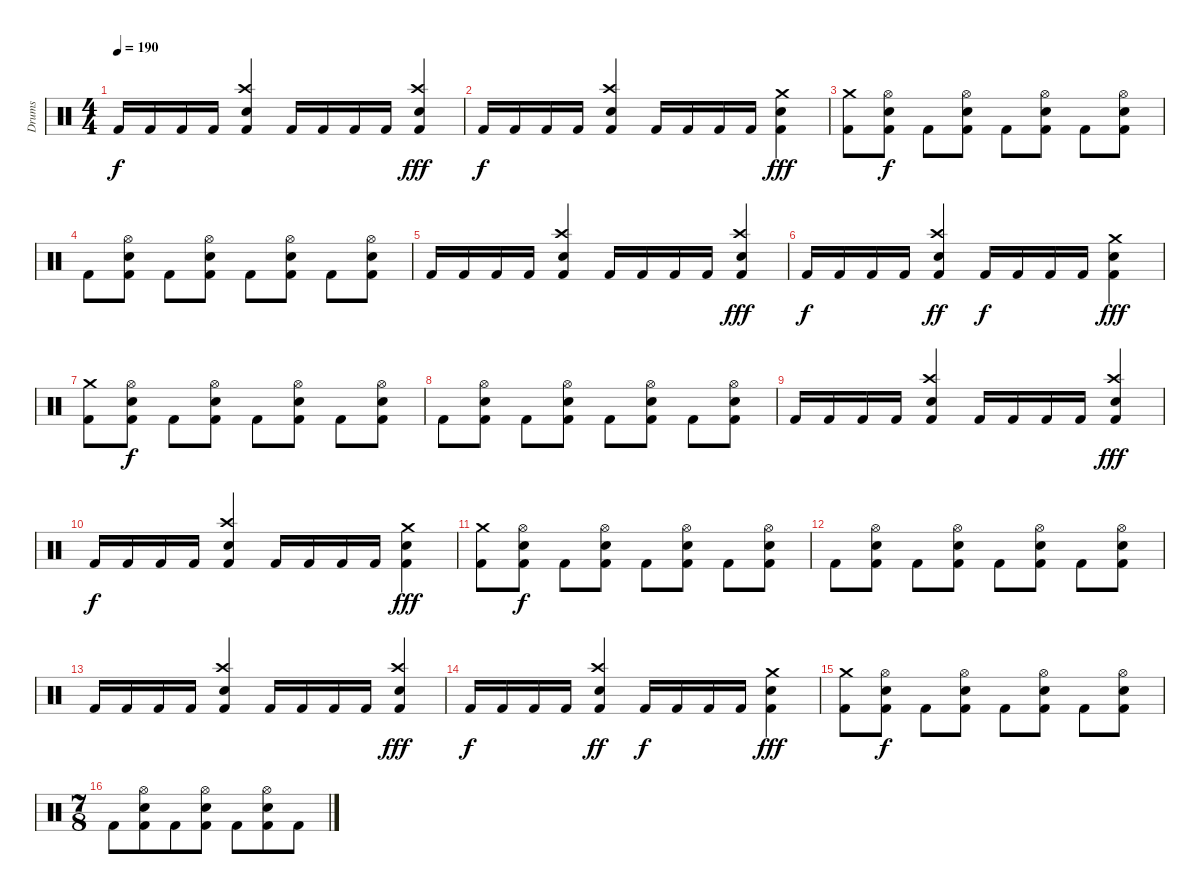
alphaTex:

\track ("Drums" "Drums") {instrument percussion}
\staff {score}
\articulation defaults
\ts (4 4)
\tempo 190
\clef neutral
\ks c "Kick (hit) 2".16{dy f} "Kick (hit) 2".16 "Kick (hit) 2".16 "Kick (hit) 2".16
("Crash high (hit)" "Snare (hit) 2" "Kick (hit) 2").4 "Kick (hit) 2".16 "Kick (hit) 2".16 "Kick (hit) 2".16 "Kick (hit) 2".16 ("Crash high (hit)" "Snare (hit) 2" "Kick (hit) 2").4{dy fff} |
"Kick (hit) 2".16{dy f} "Kick (hit) 2".16 "Kick (hit) 2".16 "Kick (hit) 2".16 ("Crash high (hit)" "Snare (hit) 2" "Kick (hit) 2").4 "Kick (hit) 2".16 "Kick (hit) 2".16 "Kick (hit) 2".16 "Kick (hit) 2".16 ("Crash medium (hit)" "Snare (hit) 2" "Kick (hit) 2").4{dy fff} |
("Crash medium (hit)" "Kick (hit) 2").8 ("Hi-Hat (open)" "Snare (hit) 2" "Kick (hit) 2").8{dy f} "Kick (hit) 2".8 ("Hi-Hat (open)" "Snare (hit) 2" "Kick (hit) 2").8 "Kick (hit) 2".8 ("Hi-Hat (open)" "Snare (hit) 2" "Kick (hit) 2").8 "Kick (hit) 2".8 ("Hi-Hat (open)" "Snare (hit) 2" "Kick (hit) 2").8 |
"Kick (hit) 2".8 ("Hi-Hat (open)" "Snare (hit) 2" "Kick (hit) 2").8 "Kick (hit) 2".8 ("Hi-Hat (open)" "Snare (hit) 2" "Kick (hit) 2").8 "Kick (hit) 2".8 ("Hi-Hat (open)" "Snare (hit) 2" "Kick (hit) 2").8 "Kick (hit) 2".8 ("Hi-Hat (open)" "Snare (hit) 2" "Kick (hit) 2").8 |
"Kick (hit) 2".16 "Kick (hit) 2".16 "Kick (hit) 2".16 "Kick (hit) 2".16 ("Crash high (hit)" "Snare (hit) 2" "Kick (hit) 2").4 "Kick (hit) 2".16 "Kick (hit) 2".16 "Kick (hit) 2".16 "Kick (hit) 2".16 ("Crash high (hit)" "Snare (hit) 2" "Kick (hit) 2").4{dy fff} |
"Kick (hit) 2".16{dy f} "Kick (hit) 2".16 "Kick (hit) 2".16 "Kick (hit) 2".16 ("Crash high (hit)" "Snare (hit) 2" "Kick (hit) 2").4{dy ff} "Kick (hit) 2".16{dy f} "Kick (hit) 2".16 "Kick (hit) 2".16 "Kick (hit) 2".16 ("Crash medium (hit)" "Snare (hit) 2" "Kick (hit) 2").4{dy fff} |
("Crash medium (hit)" "Kick (hit) 2").8 ("Hi-Hat (open)" "Snare (hit) 2" "Kick (hit) 2").8{dy f} "Kick (hit) 2".8 ("Hi-Hat (open)" "Snare (hit) 2" "Kick (hit) 2").8 "Kick (hit) 2".8 ("Hi-Hat (open)" "Snare (hit) 2" "Kick (hit) 2").8 "Kick (hit) 2".8 ("Hi-Hat (open)" "Snare (hit) 2" "Kick (hit) 2").8 |
"Kick (hit) 2".8 ("Hi-Hat (open)" "Snare (hit) 2" "Kick (hit) 2").8 "Kick (hit) 2".8 ("Hi-Hat (open)" "Snare (hit) 2" "Kick (hit) 2").8 "Kick (hit) 2".8 ("Hi-Hat (open)" "Snare (hit) 2" "Kick (hit) 2").8 "Kick (hit) 2".8 ("Hi-Hat (open)" "Snare (hit) 2" "Kick (hit) 2").8 |
"Kick (hit) 2".16 "Kick (hit) 2".16 "Kick (hit) 2".16 "Kick (hit) 2".16 ("Crash high (hit)" "Snare (hit) 2" "Kick (hit) 2").4 "Kick (hit) 2".16 "Kick (hit) 2".16 "Kick (hit) 2".16 "Kick (hit) 2".16 ("Crash high (hit)" "Snare (hit) 2" "Kick (hit) 2").4{dy fff} |
"Kick (hit) 2".16{dy f} "Kick (hit) 2".16 "Kick (hit) 2".16 "Kick (hit) 2".16 ("Crash high (hit)" "Snare (hit) 2" "Kick (hit) 2").4 "Kick (hit) 2".16 "Kick (hit) 2".16 "Kick (hit) 2".16 "Kick (hit) 2".16 ("Crash medium (hit)" "Snare (hit) 2" "Kick (hit) 2").4{dy fff} |
("Crash medium (hit)" "Kick (hit) 2").8 ("Hi-Hat (open)" "Snare (hit) 2" "Kick (hit) 2").8{dy f} "Kick (hit) 2".8 ("Hi-Hat (open)" "Snare (hit) 2" "Kick (hit) 2").8 "Kick (hit) 2".8 ("Hi-Hat (open)" "Snare (hit) 2" "Kick (hit) 2").8 "Kick (hit) 2".8 ("Hi-Hat (open)" "Snare (hit) 2" "Kick (hit) 2").8 |
"Kick (hit) 2".8 ("Hi-Hat (open)" "Snare (hit) 2" "Kick (hit) 2").8 "Kick (hit) 2".8 ("Hi-Hat (open)" "Snare (hit) 2" "Kick (hit) 2").8 "Kick (hit) 2".8 ("Hi-Hat (open)" "Snare (hit) 2" "Kick (hit) 2").8 "Kick (hit) 2".8 ("Hi-Hat (open)" "Snare (hit) 2" "Kick (hit) 2").8 |
"Kick (hit) 2".16 "Kick (hit) 2".16 "Kick (hit) 2".16 "Kick (hit) 2".16 ("Crash high (hit)" "Snare (hit) 2" "Kick (hit) 2").4 "Kick (hit) 2".16 "Kick (hit) 2".16 "Kick (hit) 2".16 "Kick (hit) 2".16 ("Crash high (hit)" "Snare (hit) 2" "Kick (hit) 2").4{dy fff} |
"Kick (hit) 2".16{dy f} "Kick (hit) 2".16 "Kick (hit) 2".16 "Kick (hit) 2".16 ("Crash high (hit)" "Snare (hit) 2" "Kick (hit) 2").4{dy ff} "Kick (hit) 2".16{dy f} "Kick (hit) 2".16 "Kick (hit) 2".16 "Kick (hit) 2".16 ("Crash medium (hit)" "Snare (hit) 2" "Kick (hit) 2").4{dy fff} |
("Crash medium (hit)" "Kick (hit) 2").8 ("Hi-Hat (open)" "Snare (hit) 2" "Kick (hit) 2").8{dy f} "Kick (hit) 2".8 ("Hi-Hat (open)" "Snare (hit) 2" "Kick (hit) 2").8 "Kick (hit) 2".8 ("Hi-Hat (open)" "Snare (hit) 2" "Kick (hit) 2").8 "Kick (hit) 2".8 ("Hi-Hat (open)" "Snare (hit) 2" "Kick (hit) 2").8 |
\ts (7 8)
"Kick (hit) 2".8 ("Hi-Hat (open)" "Snare (hit) 2" "Kick (hit) 2").8 "Kick (hit) 2".8 ("Hi-Hat (open)" "Snare (hit) 2" "Kick (hit) 2").8 "Kick (hit) 2".8 ("Hi-Hat (open)" "Snare (hit) 2" "Kick (hit) 2").8 "Kick (hit) 2".8
